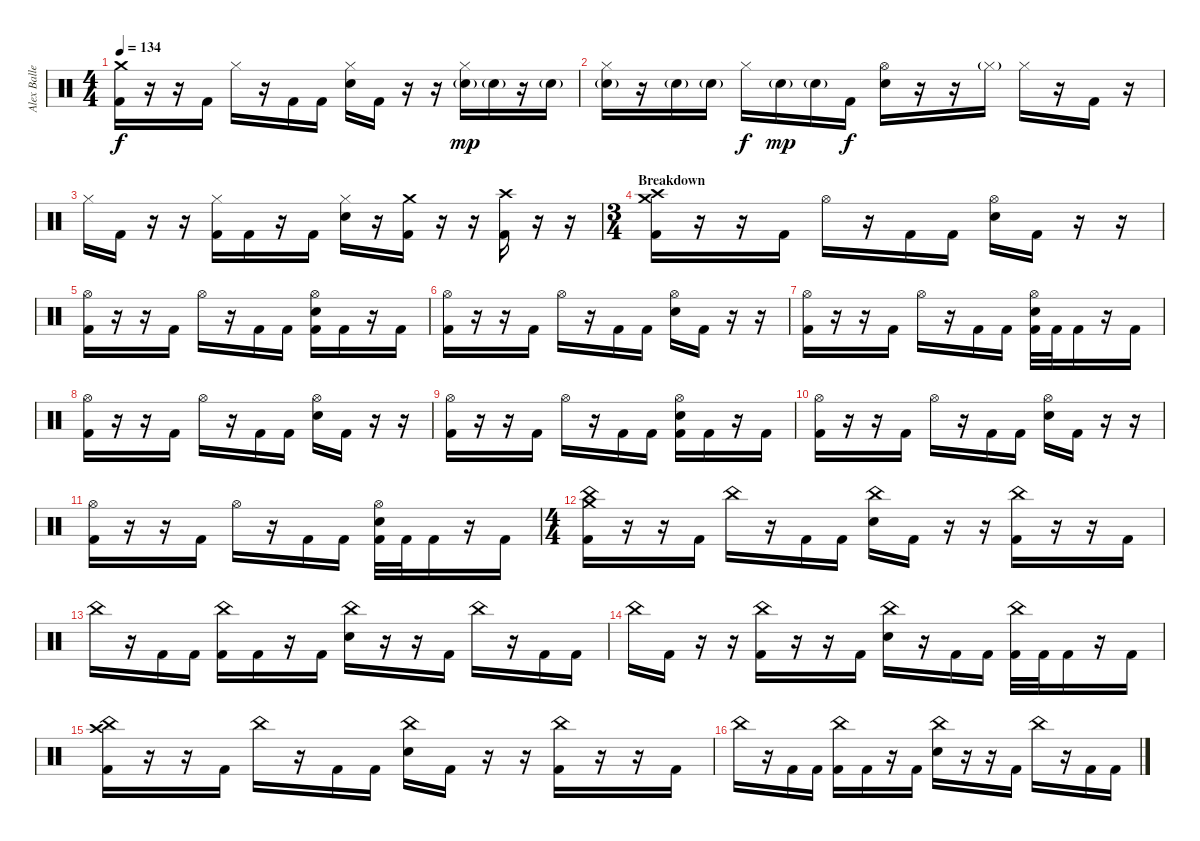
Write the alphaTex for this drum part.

\track ("Alex Ballew" "Alex Balle") {instrument percussion}
\staff {score}
\articulation defaults
\ts (4 4)
\tempo 134
\clef neutral
\ks c
("Crash medium (hit)" "Kick (hit) 2").16{dy f} r.16 r.16 "Kick (hit) 2".16 "Hi-Hat (closed)".16 r.16 "Kick (hit) 2".16 "Kick (hit) 2".16 ("Hi-Hat (closed)" "Electric Snare (hit)").16 "Kick (hit) 2".16 r.16 r.16 ("Hi-Hat (closed)" "Snare (hit) 2"{g}).16{dy mp} "Snare (hit) 2"{g}.16 r.16 "Snare (hit) 2"{g}.16 |
("Hi-Hat (closed)" "Snare (hit) 2"{g}).16 r.16 "Snare (hit) 2"{g}.16 "Snare (hit) 2"{g}.16 "Hi-Hat (closed)".16{dy f} "Snare (hit) 2"{g}.16{dy mp} "Snare (hit) 2"{g}.16 "Kick (hit) 2".16{dy f} ("Hi-Hat (open)" "Electric Snare (hit)").16 r.16 r.16 "Hi-Hat (closed)"{g}.16 "Hi-Hat (closed)".16 r.16 "Kick (hit) 2".16 r.16 |
"Hi-Hat (closed)".16 "Kick (hit) 2".16 r.16 r.16 ("Hi-Hat (closed)" "Kick (hit) 2").16 "Kick (hit) 2".16 r.16 "Kick (hit) 2".16 ("Hi-Hat (closed)" "Electric Snare (hit)").16 r.16 ("Crash medium (hit)" "Kick (hit) 2").16 r.16 r.16 ("Crash high (hit)" "Kick (hit) 2").16 r.16 r.16 |
\ts (3 4)
\section ("" "Breakdown ")
("Crash medium (hit)" "Crash high (hit)" "Kick (hit) 2").16 r.16 r.16 "Kick (hit) 2".16 "Hi-Hat (open)".16 r.16 "Kick (hit) 2".16 "Kick (hit) 2".16 ("Hi-Hat (open)" "Electric Snare (hit)").16 "Kick (hit) 2".16 r.16 r.16 |
("Hi-Hat (open)" "Kick (hit) 2").16 r.16 r.16 "Kick (hit) 2".16 "Hi-Hat (open)".16 r.16 "Kick (hit) 2".16 "Kick (hit) 2".16 ("Hi-Hat (open)" "Electric Snare (hit)" "Kick (hit) 2").16 "Kick (hit) 2".16 r.16 "Kick (hit) 2".16 |
("Hi-Hat (open)" "Kick (hit) 2").16 r.16 r.16 "Kick (hit) 2".16 "Hi-Hat (open)".16 r.16 "Kick (hit) 2".16 "Kick (hit) 2".16 ("Hi-Hat (open)" "Electric Snare (hit)").16 "Kick (hit) 2".16 r.16 r.16 |
("Hi-Hat (open)" "Kick (hit) 2").16 r.16 r.16 "Kick (hit) 2".16 "Hi-Hat (open)".16 r.16 "Kick (hit) 2".16 "Kick (hit) 2".16 ("Hi-Hat (open)" "Electric Snare (hit)" "Kick (hit) 2").32 "Kick (hit) 2".32 "Kick (hit) 2".16 r.16 "Kick (hit) 2".16 |
("Hi-Hat (open)" "Kick (hit) 2").16 r.16 r.16 "Kick (hit) 2".16 "Hi-Hat (open)".16 r.16 "Kick (hit) 2".16 "Kick (hit) 2".16 ("Hi-Hat (open)" "Electric Snare (hit)").16 "Kick (hit) 2".16 r.16 r.16 |
("Hi-Hat (open)" "Kick (hit) 2").16 r.16 r.16 "Kick (hit) 2".16 "Hi-Hat (open)".16 r.16 "Kick (hit) 2".16 "Kick (hit) 2".16 ("Hi-Hat (open)" "Electric Snare (hit)" "Kick (hit) 2").16 "Kick (hit) 2".16 r.16 "Kick (hit) 2".16 |
("Hi-Hat (open)" "Kick (hit) 2").16 r.16 r.16 "Kick (hit) 2".16 "Hi-Hat (open)".16 r.16 "Kick (hit) 2".16 "Kick (hit) 2".16 ("Hi-Hat (open)" "Electric Snare (hit)").16 "Kick (hit) 2".16 r.16 r.16 |
("Hi-Hat (open)" "Kick (hit) 2").16 r.16 r.16 "Kick (hit) 2".16 "Hi-Hat (open)".16 r.16 "Kick (hit) 2".16 "Kick (hit) 2".16 ("Hi-Hat (open)" "Electric Snare (hit)" "Kick (hit) 2").32 "Kick (hit) 2".32 "Kick (hit) 2".16 r.16 "Kick (hit) 2".16 |
\ts (4 4)
("China (hit)" "Crash medium (hit)" "Kick (hit) 2").16 r.16 r.16 "Kick (hit) 2".16 "China (hit)".16 r.16 "Kick (hit) 2".16 "Kick (hit) 2".16 ("China (hit)" "Electric Snare (hit)").16 "Kick (hit) 2".16 r.16 r.16 ("China (hit)" "Kick (hit) 2").16 r.16 r.16 "Kick (hit) 2".16 |
"China (hit)".16 r.16 "Kick (hit) 2".16 "Kick (hit) 2".16 ("China (hit)" "Kick (hit) 2").16 "Kick (hit) 2".16 r.16 "Kick (hit) 2".16 ("China (hit)" "Electric Snare (hit)").16 r.16 r.16 "Kick (hit) 2".16 "China (hit)".16 r.16 "Kick (hit) 2".16 "Kick (hit) 2".16 |
"China (hit)".16 "Kick (hit) 2".16 r.16 r.16 ("China (hit)" "Kick (hit) 2").16 r.16 r.16 "Kick (hit) 2".16 ("China (hit)" "Electric Snare (hit)").16 r.16 "Kick (hit) 2".16 "Kick (hit) 2".16 ("China (hit)" "Kick (hit) 2").32 "Kick (hit) 2".32 "Kick (hit) 2".16 r.16 "Kick (hit) 2".16 |
("China (hit)" "Crash high (hit)" "Kick (hit) 2").16 r.16 r.16 "Kick (hit) 2".16 "China (hit)".16 r.16 "Kick (hit) 2".16 "Kick (hit) 2".16 ("China (hit)" "Electric Snare (hit)").16 "Kick (hit) 2".16 r.16 r.16 ("China (hit)" "Kick (hit) 2").16 r.16 r.16 "Kick (hit) 2".16 |
"China (hit)".16 r.16 "Kick (hit) 2".16 "Kick (hit) 2".16 ("China (hit)" "Kick (hit) 2").16 "Kick (hit) 2".16 r.16 "Kick (hit) 2".16 ("China (hit)" "Electric Snare (hit)").16 r.16 r.16 "Kick (hit) 2".16 "China (hit)".16 r.16 "Kick (hit) 2".16 "Kick (hit) 2".16
